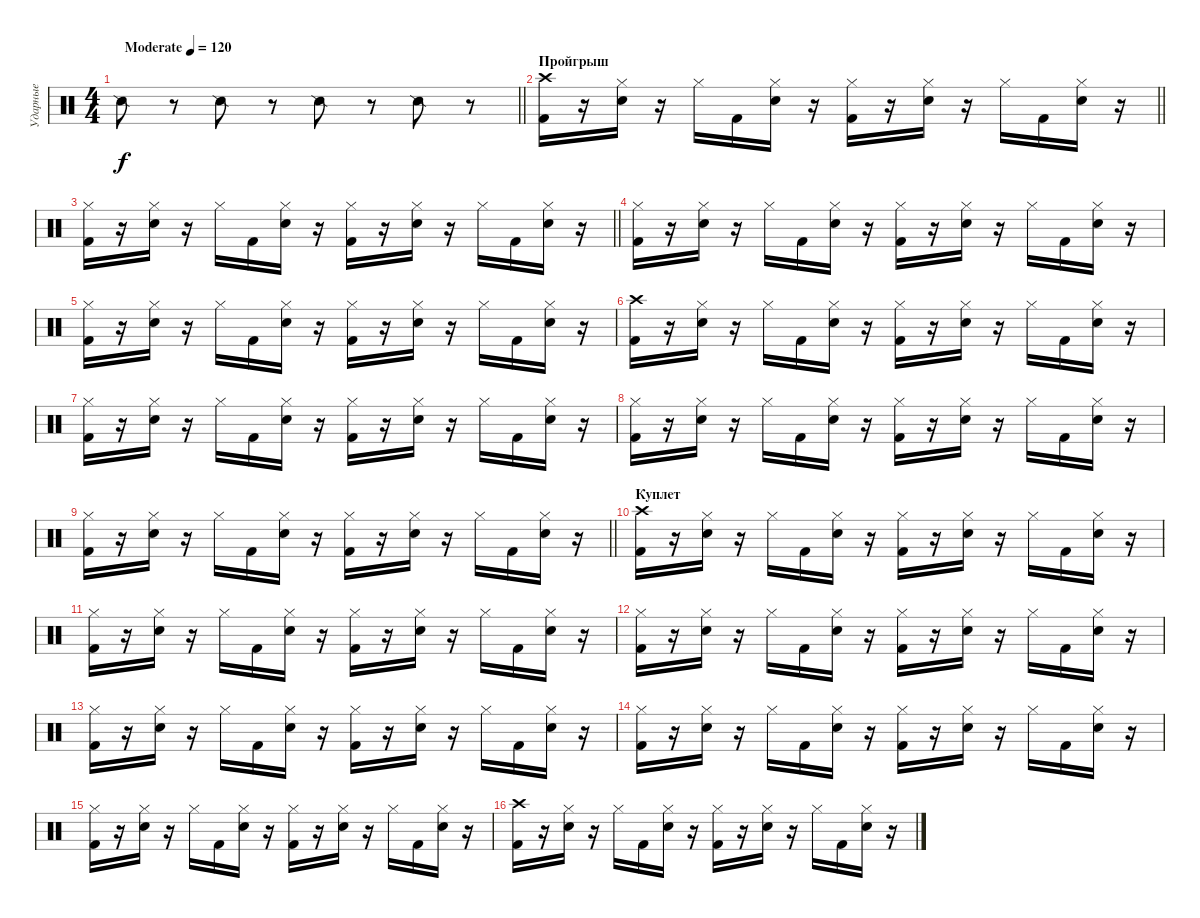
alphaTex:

\track ("Ударные" "Ударные") {instrument percussion}
\staff {score}
\articulation defaults
\ts (4 4)
\tempo (120 "Moderate")
\clef neutral
\barLineRight lightlight
\ks c "Snare (side stick) 2".8{dy f}
r.8 "Snare (side stick) 2".8 r.8 "Snare (side stick) 2".8 r.8 "Snare (side stick) 2".8 r.8 |
\section ("" "Пройгрыш")
\barLineRight lightlight
("Kick (hit) 2" "Crash high (hit)").16 r.16 ("Electric Snare (hit)" "Hi-Hat (closed)").16 r.16 "Hi-Hat (closed)".16 "Kick (hit) 2".16 ("Electric Snare (hit)" "Hi-Hat (closed)").16 r.16 ("Kick (hit) 2" "Hi-Hat (closed)").16 r.16 ("Electric Snare (hit)" "Hi-Hat (closed)").16 r.16 "Hi-Hat (closed)".16 "Kick (hit) 2".16 ("Electric Snare (hit)" "Hi-Hat (closed)").16 r.16 |
\section ("" "")
\barLineRight lightlight
("Kick (hit) 2" "Hi-Hat (closed)").16 r.16 ("Electric Snare (hit)" "Hi-Hat (closed)").16 r.16 "Hi-Hat (closed)".16 "Kick (hit) 2".16 ("Electric Snare (hit)" "Hi-Hat (closed)").16 r.16 ("Kick (hit) 2" "Hi-Hat (closed)").16 r.16 ("Electric Snare (hit)" "Hi-Hat (closed)").16 r.16 "Hi-Hat (closed)".16 "Kick (hit) 2".16 ("Electric Snare (hit)" "Hi-Hat (closed)").16 r.16 |
\section ("" "")
("Kick (hit) 2" "Hi-Hat (closed)").16 r.16 ("Electric Snare (hit)" "Hi-Hat (closed)").16 r.16 "Hi-Hat (closed)".16 "Kick (hit) 2".16 ("Electric Snare (hit)" "Hi-Hat (closed)").16 r.16 ("Kick (hit) 2" "Hi-Hat (closed)").16 r.16 ("Electric Snare (hit)" "Hi-Hat (closed)").16 r.16 "Hi-Hat (closed)".16 "Kick (hit) 2".16 ("Electric Snare (hit)" "Hi-Hat (closed)").16 r.16 |
("Kick (hit) 2" "Hi-Hat (closed)").16 r.16 ("Electric Snare (hit)" "Hi-Hat (closed)").16 r.16 "Hi-Hat (closed)".16 "Kick (hit) 2".16 ("Electric Snare (hit)" "Hi-Hat (closed)").16 r.16 ("Kick (hit) 2" "Hi-Hat (closed)").16 r.16 ("Electric Snare (hit)" "Hi-Hat (closed)").16 r.16 "Hi-Hat (closed)".16 "Kick (hit) 2".16 ("Electric Snare (hit)" "Hi-Hat (closed)").16 r.16 |
("Kick (hit) 2" "Crash high (hit)").16 r.16 ("Electric Snare (hit)" "Hi-Hat (closed)").16 r.16 "Hi-Hat (closed)".16 "Kick (hit) 2".16 ("Electric Snare (hit)" "Hi-Hat (closed)").16 r.16 ("Kick (hit) 2" "Hi-Hat (closed)").16 r.16 ("Electric Snare (hit)" "Hi-Hat (closed)").16 r.16 "Hi-Hat (closed)".16 "Kick (hit) 2".16 ("Electric Snare (hit)" "Hi-Hat (closed)").16 r.16 |
("Kick (hit) 2" "Hi-Hat (closed)").16 r.16 ("Electric Snare (hit)" "Hi-Hat (closed)").16 r.16 "Hi-Hat (closed)".16 "Kick (hit) 2".16 ("Electric Snare (hit)" "Hi-Hat (closed)").16 r.16 ("Kick (hit) 2" "Hi-Hat (closed)").16 r.16 ("Electric Snare (hit)" "Hi-Hat (closed)").16 r.16 "Hi-Hat (closed)".16 "Kick (hit) 2".16 ("Electric Snare (hit)" "Hi-Hat (closed)").16 r.16 |
("Kick (hit) 2" "Hi-Hat (closed)").16 r.16 ("Electric Snare (hit)" "Hi-Hat (closed)").16 r.16 "Hi-Hat (closed)".16 "Kick (hit) 2".16 ("Electric Snare (hit)" "Hi-Hat (closed)").16 r.16 ("Kick (hit) 2" "Hi-Hat (closed)").16 r.16 ("Electric Snare (hit)" "Hi-Hat (closed)").16 r.16 "Hi-Hat (closed)".16 "Kick (hit) 2".16 ("Electric Snare (hit)" "Hi-Hat (closed)").16 r.16 |
\barLineRight lightlight
("Kick (hit) 2" "Hi-Hat (closed)").16 r.16 ("Electric Snare (hit)" "Hi-Hat (closed)").16 r.16 "Hi-Hat (closed)".16 "Kick (hit) 2".16 ("Electric Snare (hit)" "Hi-Hat (closed)").16 r.16 ("Kick (hit) 2" "Hi-Hat (closed)").16 r.16 ("Electric Snare (hit)" "Hi-Hat (closed)").16 r.16 "Hi-Hat (closed)".16 "Kick (hit) 2".16 ("Electric Snare (hit)" "Hi-Hat (closed)").16 r.16 |
\section ("" "Куплет")
("Kick (hit) 2" "Crash high (hit)").16 r.16 ("Electric Snare (hit)" "Hi-Hat (closed)").16 r.16 "Hi-Hat (closed)".16 "Kick (hit) 2".16 ("Electric Snare (hit)" "Hi-Hat (closed)").16 r.16 ("Kick (hit) 2" "Hi-Hat (closed)").16 r.16 ("Electric Snare (hit)" "Hi-Hat (closed)").16 r.16 "Hi-Hat (closed)".16 "Kick (hit) 2".16 ("Electric Snare (hit)" "Hi-Hat (closed)").16 r.16 |
("Kick (hit) 2" "Hi-Hat (closed)").16 r.16 ("Electric Snare (hit)" "Hi-Hat (closed)").16 r.16 "Hi-Hat (closed)".16 "Kick (hit) 2".16 ("Electric Snare (hit)" "Hi-Hat (closed)").16 r.16 ("Kick (hit) 2" "Hi-Hat (closed)").16 r.16 ("Electric Snare (hit)" "Hi-Hat (closed)").16 r.16 "Hi-Hat (closed)".16 "Kick (hit) 2".16 ("Electric Snare (hit)" "Hi-Hat (closed)").16 r.16 |
("Kick (hit) 2" "Hi-Hat (closed)").16 r.16 ("Electric Snare (hit)" "Hi-Hat (closed)").16 r.16 "Hi-Hat (closed)".16 "Kick (hit) 2".16 ("Electric Snare (hit)" "Hi-Hat (closed)").16 r.16 ("Kick (hit) 2" "Hi-Hat (closed)").16 r.16 ("Electric Snare (hit)" "Hi-Hat (closed)").16 r.16 "Hi-Hat (closed)".16 "Kick (hit) 2".16 ("Electric Snare (hit)" "Hi-Hat (closed)").16 r.16 |
("Kick (hit) 2" "Hi-Hat (closed)").16 r.16 ("Electric Snare (hit)" "Hi-Hat (closed)").16 r.16 "Hi-Hat (closed)".16 "Kick (hit) 2".16 ("Electric Snare (hit)" "Hi-Hat (closed)").16 r.16 ("Kick (hit) 2" "Hi-Hat (closed)").16 r.16 ("Electric Snare (hit)" "Hi-Hat (closed)").16 r.16 "Hi-Hat (closed)".16 "Kick (hit) 2".16 ("Electric Snare (hit)" "Hi-Hat (closed)").16 r.16 |
("Kick (hit) 2" "Hi-Hat (closed)").16 r.16 ("Electric Snare (hit)" "Hi-Hat (closed)").16 r.16 "Hi-Hat (closed)".16 "Kick (hit) 2".16 ("Electric Snare (hit)" "Hi-Hat (closed)").16 r.16 ("Kick (hit) 2" "Hi-Hat (closed)").16 r.16 ("Electric Snare (hit)" "Hi-Hat (closed)").16 r.16 "Hi-Hat (closed)".16 "Kick (hit) 2".16 ("Electric Snare (hit)" "Hi-Hat (closed)").16 r.16 |
("Kick (hit) 2" "Hi-Hat (closed)").16 r.16 ("Electric Snare (hit)" "Hi-Hat (closed)").16 r.16 "Hi-Hat (closed)".16 "Kick (hit) 2".16 ("Electric Snare (hit)" "Hi-Hat (closed)").16 r.16 ("Kick (hit) 2" "Hi-Hat (closed)").16 r.16 ("Electric Snare (hit)" "Hi-Hat (closed)").16 r.16 "Hi-Hat (closed)".16 "Kick (hit) 2".16 ("Electric Snare (hit)" "Hi-Hat (closed)").16 r.16 |
("Kick (hit) 2" "Crash high (hit)").16 r.16 ("Electric Snare (hit)" "Hi-Hat (closed)").16 r.16 "Hi-Hat (closed)".16 "Kick (hit) 2".16 ("Electric Snare (hit)" "Hi-Hat (closed)").16 r.16 ("Kick (hit) 2" "Hi-Hat (closed)").16 r.16 ("Electric Snare (hit)" "Hi-Hat (closed)").16 r.16 "Hi-Hat (closed)".16 "Kick (hit) 2".16 ("Electric Snare (hit)" "Hi-Hat (closed)").16 r.16
